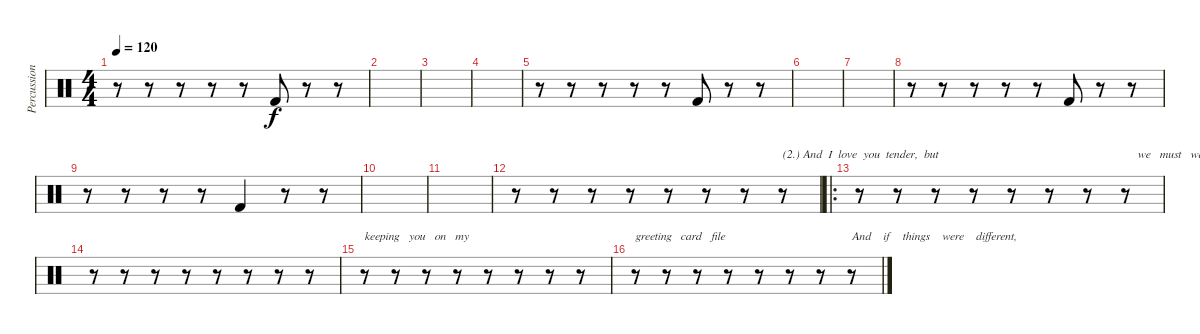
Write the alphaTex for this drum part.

\track ("Percussion" "Percussion") {instrument percussion}
\staff {score}
\articulation defaults
\ts (4 4)
\tempo 120
\clef neutral
\ks c
r.8{dy f} r.8 r.8 r.8 r.8 "Kick (hit) 2".8 r.8 r.8 |
|
|
|
r.8 r.8 r.8 r.8 r.8 "Kick (hit) 2".8 r.8 r.8 |
|
|
r.8 r.8 r.8 r.8 r.8 "Kick (hit) 2".8 r.8 r.8 |
r.8 r.8 r.8 r.8 "Kick (hit) 2".4 r.8 r.8 |
|
|
r.8 r.8 r.8 r.8 r.8 r.8 r.8 r.8{txt "(2.) And  I  love  you  tender,  but"} |
\ro
r.8 r.8 r.8 r.8 r.8 r.8 r.8 r.8{txt "    we   must   walk   away"} |
r.8 r.8 r.8 r.8 r.8 r.8 r.8 r.8 |
r.8{txt "keeping   you   on   my "} r.8 r.8 r.8 r.8 r.8 r.8 r.8 |
r.8{txt "greeting   card   file"} r.8 r.8 r.8 r.8 r.8 r.8 r.8{txt "And    if    things    were    different,"}
